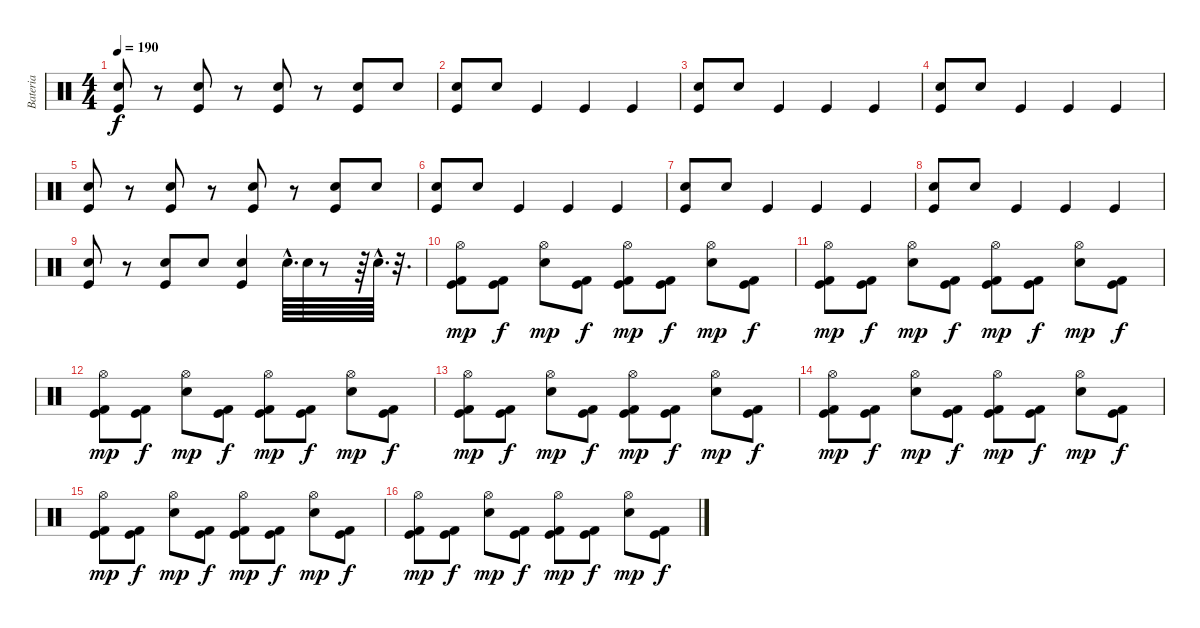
\track ("Bateria" "Bateria") {instrument percussion}
\staff {score}
\articulation defaults
\ts (4 4)
\tempo 190
\clef neutral
\ks c
("Electric Snare (hit)" "Kick (hit)").8{dy f} r.8 ("Electric Snare (hit)" "Kick (hit)").8 r.8 ("Electric Snare (hit)" "Kick (hit)").8 r.8 ("Electric Snare (hit)" "Kick (hit)").8 "Electric Snare (hit)".8 |
("Electric Snare (hit)" "Kick (hit)").8 "Electric Snare (hit)".8 "Kick (hit)".4 "Kick (hit)".4 "Kick (hit)".4 |
("Electric Snare (hit)" "Kick (hit)").8 "Electric Snare (hit)".8 "Kick (hit)".4 "Kick (hit)".4 "Kick (hit)".4 |
("Electric Snare (hit)" "Kick (hit)").8 "Electric Snare (hit)".8 "Kick (hit)".4 "Kick (hit)".4 "Kick (hit)".4 |
("Electric Snare (hit)" "Kick (hit)").8 r.8 ("Electric Snare (hit)" "Kick (hit)").8 r.8 ("Electric Snare (hit)" "Kick (hit)").8 r.8 ("Electric Snare (hit)" "Kick (hit)").8 "Electric Snare (hit)".8 |
("Electric Snare (hit)" "Kick (hit)").8 "Electric Snare (hit)".8 "Kick (hit)".4 "Kick (hit)".4 "Kick (hit)".4 |
("Electric Snare (hit)" "Kick (hit)").8 "Electric Snare (hit)".8 "Kick (hit)".4 "Kick (hit)".4 "Kick (hit)".4 |
("Electric Snare (hit)" "Kick (hit)").8 "Electric Snare (hit)".8 "Kick (hit)".4 "Kick (hit)".4 "Kick (hit)".4 |
("Electric Snare (hit)" "Kick (hit)").8 r.8 ("Electric Snare (hit)" "Kick (hit)").8 "Electric Snare (hit)".8 ("Electric Snare (hit)" "Kick (hit)").4 "Electric Snare (hit)"{hac}.64{d} "Electric Snare (hit)".64 r.8 r.64 "Electric Snare (hit)"{hac}.64{d} r.32{d} |
("Kick (hit) 2" "Kick (hit)" "Hi-Hat (open)").8{dy mp} ("Kick (hit)" "Kick (hit) 2").8{dy f} ("Electric Snare (hit)" "Hi-Hat (open)").8{dy mp} ("Kick (hit) 2" "Kick (hit)").8{dy f} ("Kick (hit) 2" "Kick (hit)" "Hi-Hat (open)").8{dy mp} ("Kick (hit)" "Kick (hit) 2").8{dy f} ("Electric Snare (hit)" "Hi-Hat (open)").8{dy mp} ("Kick (hit)" "Kick (hit) 2").8{dy f} |
("Kick (hit) 2" "Kick (hit)" "Hi-Hat (open)").8{dy mp} ("Kick (hit)" "Kick (hit) 2").8{dy f} ("Electric Snare (hit)" "Hi-Hat (open)").8{dy mp} ("Kick (hit) 2" "Kick (hit)").8{dy f} ("Kick (hit) 2" "Kick (hit)" "Hi-Hat (open)").8{dy mp} ("Kick (hit)" "Kick (hit) 2").8{dy f} ("Electric Snare (hit)" "Hi-Hat (open)").8{dy mp} ("Kick (hit)" "Kick (hit) 2").8{dy f} |
("Kick (hit) 2" "Kick (hit)" "Hi-Hat (open)").8{dy mp} ("Kick (hit)" "Kick (hit) 2").8{dy f} ("Electric Snare (hit)" "Hi-Hat (open)").8{dy mp} ("Kick (hit) 2" "Kick (hit)").8{dy f} ("Kick (hit) 2" "Kick (hit)" "Hi-Hat (open)").8{dy mp} ("Kick (hit)" "Kick (hit) 2").8{dy f} ("Electric Snare (hit)" "Hi-Hat (open)").8{dy mp} ("Kick (hit)" "Kick (hit) 2").8{dy f} |
("Kick (hit) 2" "Kick (hit)" "Hi-Hat (open)").8{dy mp} ("Kick (hit)" "Kick (hit) 2").8{dy f} ("Electric Snare (hit)" "Hi-Hat (open)").8{dy mp} ("Kick (hit) 2" "Kick (hit)").8{dy f} ("Kick (hit) 2" "Kick (hit)" "Hi-Hat (open)").8{dy mp} ("Kick (hit)" "Kick (hit) 2").8{dy f} ("Electric Snare (hit)" "Hi-Hat (open)").8{dy mp} ("Kick (hit)" "Kick (hit) 2").8{dy f} |
("Kick (hit) 2" "Kick (hit)" "Hi-Hat (open)").8{dy mp} ("Kick (hit)" "Kick (hit) 2").8{dy f} ("Electric Snare (hit)" "Hi-Hat (open)").8{dy mp} ("Kick (hit) 2" "Kick (hit)").8{dy f} ("Kick (hit) 2" "Kick (hit)" "Hi-Hat (open)").8{dy mp} ("Kick (hit)" "Kick (hit) 2").8{dy f} ("Electric Snare (hit)" "Hi-Hat (open)").8{dy mp} ("Kick (hit)" "Kick (hit) 2").8{dy f} |
("Kick (hit) 2" "Kick (hit)" "Hi-Hat (open)").8{dy mp} ("Kick (hit)" "Kick (hit) 2").8{dy f} ("Electric Snare (hit)" "Hi-Hat (open)").8{dy mp} ("Kick (hit) 2" "Kick (hit)").8{dy f} ("Kick (hit) 2" "Kick (hit)" "Hi-Hat (open)").8{dy mp} ("Kick (hit)" "Kick (hit) 2").8{dy f} ("Electric Snare (hit)" "Hi-Hat (open)").8{dy mp} ("Kick (hit)" "Kick (hit) 2").8{dy f} |
("Kick (hit) 2" "Kick (hit)" "Hi-Hat (open)").8{dy mp} ("Kick (hit)" "Kick (hit) 2").8{dy f} ("Electric Snare (hit)" "Hi-Hat (open)").8{dy mp} ("Kick (hit) 2" "Kick (hit)").8{dy f} ("Kick (hit) 2" "Kick (hit)" "Hi-Hat (open)").8{dy mp} ("Kick (hit)" "Kick (hit) 2").8{dy f} ("Electric Snare (hit)" "Hi-Hat (open)").8{dy mp} ("Kick (hit)" "Kick (hit) 2").8{dy f}
